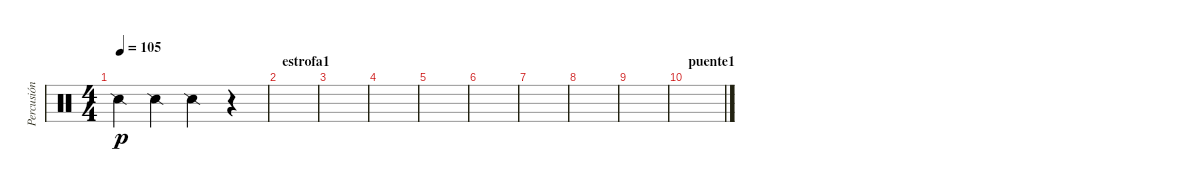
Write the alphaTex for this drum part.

\track ("Percusión" "Percusión") {instrument percussion}
\staff {score}
\articulation defaults
\ts (4 4)
\tempo 105
\clef neutral
\ks c "Snare (side stick) 2".4{dy p} "Snare (side stick) 2".4 "Snare (side stick) 2".4
r.4 |
\section ("" "estrofa1")
|
|
|
|
|
|
|
|
\section ("" "puente1")
